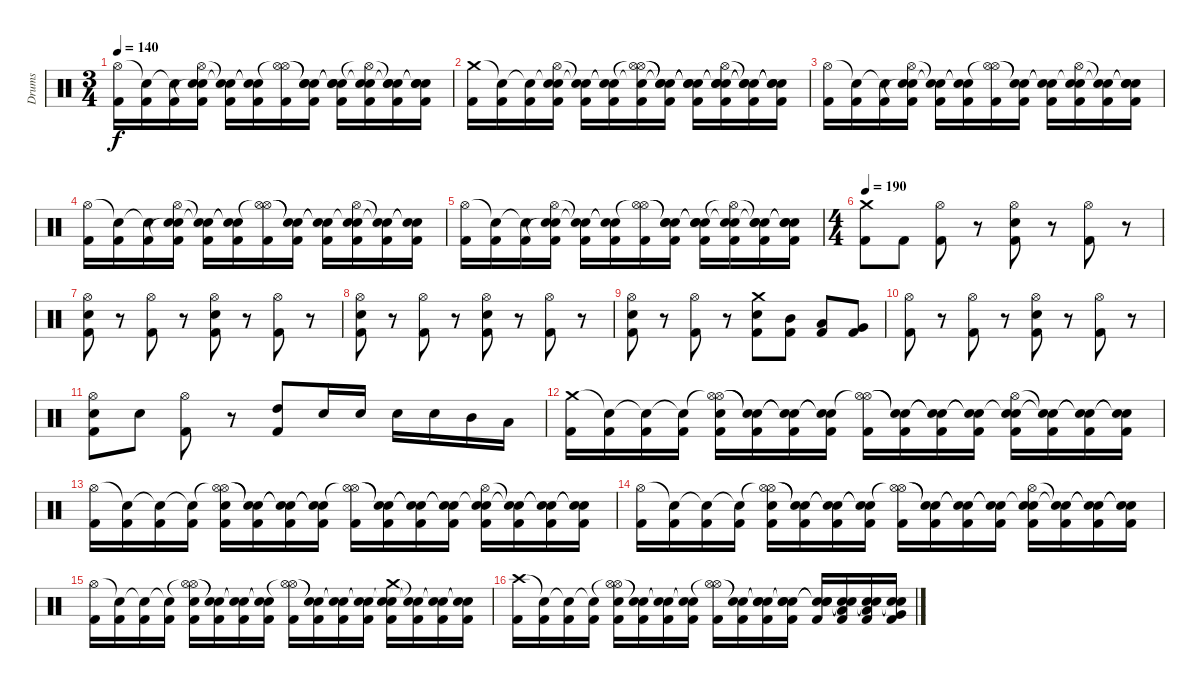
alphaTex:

\track ("Drums" "Drums") {instrument percussion}
\staff {score}
\articulation defaults
\ts (3 4)
\tempo 140
\clef neutral
\ks c
("Hi-Hat (open)" "Kick (hit) 2").16{dy f} ("Snare (hit)"{t} "Kick (hit) 2").16 ("Snare (hit)"{t} "Kick (hit) 2").16 ("Hi-Hat (open)" "Snare (hit)"{t} "Electric Snare (hit)" "Kick (hit) 2").16 ("Snare (hit)"{t} "Snare (hit)"{t} "Kick (hit) 2").16 ("Snare (hit)"{t} "Snare (hit)"{t} "Kick (hit) 2").16 ("Hi-Hat (open)"{t} "Hi-Hat (open)" "Kick (hit) 2").16 ("Snare (hit)"{t} "Snare (hit)"{t} "Electric Snare (hit)" "Kick (hit) 2").16 ("Snare (hit)"{t} "Snare (hit)"{t} "Electric Snare (hit)" "Kick (hit) 2").16 ("Hi-Hat (open)"{t} "Snare (hit)"{t} "Electric Snare (hit)" "Kick (hit) 2").16 ("Snare (hit)"{t} "Snare (hit)"{t} "Electric Snare (hit)" "Kick (hit) 2").16 ("Snare (hit)"{t} "Snare (hit)"{t} "Electric Snare (hit)" "Kick (hit) 2").16 |
("Crash medium (hit)" "Kick (hit) 2").16 ("Snare (hit)"{t} "Kick (hit) 2").16 ("Snare (hit)"{t} "Kick (hit) 2").16 ("Snare (hit)"{t} "Hi-Hat (open)" "Electric Snare (hit)" "Kick (hit) 2").16 ("Snare (hit)"{t} "Snare (hit)"{t} "Kick (hit) 2").16 ("Snare (hit)"{t} "Snare (hit)"{t} "Kick (hit) 2").16 ("Snare (hit)"{t} "Hi-Hat (open)"{t} "Hi-Hat (open)" "Kick (hit) 2").16 ("Snare (hit)"{t} "Snare (hit)"{t} "Snare (hit)"{t} "Kick (hit) 2").16 ("Snare (hit)"{t} "Snare (hit)"{t} "Snare (hit)"{t} "Kick (hit) 2").16 ("Snare (hit)"{t} "Hi-Hat (open)" "Snare (hit)"{t} "Electric Snare (hit)" "Kick (hit) 2").16 ("Snare (hit)"{t} "Snare (hit)"{t} "Snare (hit)"{t} "Kick (hit) 2").16 ("Snare (hit)"{t} "Snare (hit)"{t} "Snare (hit)"{t} "Kick (hit) 2").16 |
("Hi-Hat (open)" "Kick (hit) 2").16 ("Snare (hit)"{t} "Kick (hit) 2").16 ("Snare (hit)"{t} "Kick (hit) 2").16 ("Hi-Hat (open)" "Snare (hit)"{t} "Electric Snare (hit)" "Kick (hit) 2").16 ("Snare (hit)"{t} "Snare (hit)"{t} "Kick (hit) 2").16 ("Snare (hit)"{t} "Snare (hit)"{t} "Kick (hit) 2").16 ("Hi-Hat (open)"{t} "Hi-Hat (open)" "Kick (hit) 2").16 ("Snare (hit)"{t} "Snare (hit)"{t} "Kick (hit) 2").16 ("Snare (hit)"{t} "Snare (hit)"{t} "Kick (hit) 2").16 ("Hi-Hat (open)" "Snare (hit)"{t} "Electric Snare (hit)" "Kick (hit) 2").16 ("Snare (hit)"{t} "Snare (hit)"{t} "Kick (hit) 2").16 ("Snare (hit)"{t} "Snare (hit)"{t} "Electric Snare (hit)" "Kick (hit) 2").16 |
("Hi-Hat (open)" "Kick (hit) 2").16 ("Snare (hit)"{t} "Kick (hit) 2").16 ("Snare (hit)"{t} "Kick (hit) 2").16 ("Hi-Hat (open)" "Snare (hit)"{t} "Electric Snare (hit)" "Kick (hit) 2").16 ("Snare (hit)"{t} "Snare (hit)"{t} "Kick (hit) 2").16 ("Snare (hit)"{t} "Snare (hit)"{t} "Kick (hit) 2").16 ("Hi-Hat (open)"{t} "Hi-Hat (open)" "Kick (hit) 2").16 ("Snare (hit)"{t} "Snare (hit)"{t} "Kick (hit) 2").16 ("Snare (hit)"{t} "Snare (hit)"{t} "Kick (hit) 2").16 ("Hi-Hat (open)" "Snare (hit)"{t} "Electric Snare (hit)" "Kick (hit) 2").16 ("Snare (hit)"{t} "Snare (hit)"{t} "Kick (hit) 2").16 ("Snare (hit)"{t} "Snare (hit)"{t} "Kick (hit) 2").16 |
("Hi-Hat (open)" "Kick (hit) 2").16 ("Snare (hit)"{t} "Kick (hit) 2").16 ("Snare (hit)"{t} "Kick (hit) 2").16 ("Hi-Hat (open)" "Snare (hit)"{t} "Electric Snare (hit)" "Kick (hit) 2").16 ("Snare (hit)"{t} "Snare (hit)"{t} "Kick (hit) 2").16 ("Snare (hit)"{t} "Snare (hit)"{t} "Kick (hit) 2").16 ("Hi-Hat (open)"{t} "Hi-Hat (open)" "Kick (hit) 2").16 ("Snare (hit)"{t} "Snare (hit)"{t} "Electric Snare (hit)" "Kick (hit) 2").16 ("Snare (hit)"{t} "Snare (hit)"{t} "Electric Snare (hit)" "Kick (hit) 2").16 ("Hi-Hat (open)"{t} "Snare (hit)"{t} "Electric Snare (hit)" "Kick (hit) 2").16 ("Snare (hit)"{t} "Snare (hit)"{t} "Electric Snare (hit)" "Kick (hit) 2").16 ("Snare (hit)"{t} "Snare (hit)"{t} "Electric Snare (hit)" "Kick (hit) 2").16 |
\ts (4 4)
\tempo 190
("Crash medium (hit)" "Kick (hit) 2").8 "Kick (hit) 2".8 ("Hi-Hat (open)" "Kick (hit) 2").8 r.8 ("Hi-Hat (open)" "Electric Snare (hit)" "Kick (hit) 2").8 r.8 ("Hi-Hat (open)" "Kick (hit) 2").8 r.8 |
("Hi-Hat (open)" "Electric Snare (hit)" "Kick (hit) 2").8 r.8 ("Hi-Hat (open)" "Kick (hit) 2").8 r.8 ("Hi-Hat (open)" "Electric Snare (hit)" "Kick (hit) 2").8 r.8 ("Hi-Hat (open)" "Kick (hit) 2").8 r.8 |
("Hi-Hat (open)" "Electric Snare (hit)" "Kick (hit) 2").8 r.8 ("Hi-Hat (open)" "Kick (hit) 2").8 r.8 ("Hi-Hat (open)" "Electric Snare (hit)" "Kick (hit) 2").8 r.8 ("Hi-Hat (open)" "Kick (hit) 2").8 r.8 |
("Hi-Hat (open)" "Electric Snare (hit)" "Kick (hit) 2").8 r.8 ("Hi-Hat (open)" "Kick (hit) 2").8 r.8 ("Crash medium (hit)" "Electric Snare (hit)" "Kick (hit) 2").8 ("Mid Tom (hit)" "Kick (hit) 2").8 ("Low Tom (hit)" "Kick (hit) 2").8 ("Very Low Tom (hit)" "Kick (hit) 2").8 |
("Hi-Hat (open)" "Kick (hit) 2").8 r.8 ("Hi-Hat (open)" "Kick (hit) 2").8 r.8 ("Hi-Hat (open)" "Electric Snare (hit)" "Kick (hit) 2").8 r.8 ("Hi-Hat (open)" "Kick (hit) 2").8 r.8 |
("Hi-Hat (open)" "Electric Snare (hit)" "Kick (hit) 2").8 "Electric Snare (hit)".8 ("Hi-Hat (open)" "Kick (hit) 2").8 r.8 ("High Tom (hit)" "Kick (hit) 2").8 "Electric Snare (hit)".16 "Electric Snare (hit)".16 "Electric Snare (hit)".16 "Electric Snare (hit)".16 "Mid Tom (hit)".16 "Low Tom (hit)".16 |
("Crash medium (hit)" "Kick (hit) 2").16 ("Snare (hit)"{t} "Kick (hit) 2").16 ("Snare (hit)"{t} "Kick (hit) 2").16 ("Snare (hit)"{t} "Kick (hit) 2").16 ("Hi-Hat (open)"{t} "Hi-Hat (open)" "Electric Snare (hit)" "Kick (hit) 2").16 ("Snare (hit)"{t} "Snare (hit)"{t} "Kick (hit) 2").16 ("Snare (hit)"{t} "Snare (hit)"{t} "Kick (hit) 2").16 ("Snare (hit)"{t} "Snare (hit)"{t} "Kick (hit) 2").16 ("Hi-Hat (open)" "Hi-Hat (open)"{t} "Kick (hit) 2").16 ("Snare (hit)"{t} "Snare (hit)"{t} "Kick (hit) 2").16 ("Snare (hit)"{t} "Snare (hit)"{t} "Kick (hit) 2").16 ("Snare (hit)"{t} "Snare (hit)"{t} "Kick (hit) 2").16 ("Snare (hit)"{t} "Hi-Hat (open)" "Electric Snare (hit)" "Kick (hit) 2").16 ("Snare (hit)"{t} "Snare (hit)"{t} "Kick (hit) 2").16 ("Snare (hit)"{t} "Snare (hit)"{t} "Kick (hit) 2").16 ("Snare (hit)"{t} "Snare (hit)"{t} "Kick (hit) 2").16 |
("Hi-Hat (open)" "Kick (hit) 2").16 ("Snare (hit)"{t} "Kick (hit) 2").16 ("Snare (hit)"{t} "Kick (hit) 2").16 ("Snare (hit)"{t} "Kick (hit) 2").16 ("Hi-Hat (open)"{t} "Hi-Hat (open)" "Electric Snare (hit)" "Kick (hit) 2").16 ("Snare (hit)"{t} "Snare (hit)"{t} "Kick (hit) 2").16 ("Snare (hit)"{t} "Snare (hit)"{t} "Kick (hit) 2").16 ("Snare (hit)"{t} "Snare (hit)"{t} "Kick (hit) 2").16 ("Hi-Hat (open)" "Hi-Hat (open)"{t} "Kick (hit) 2").16 ("Snare (hit)"{t} "Snare (hit)"{t} "Kick (hit) 2").16 ("Snare (hit)"{t} "Snare (hit)"{t} "Kick (hit) 2").16 ("Snare (hit)"{t} "Snare (hit)"{t} "Kick (hit) 2").16 ("Snare (hit)"{t} "Hi-Hat (open)" "Electric Snare (hit)" "Kick (hit) 2").16 ("Snare (hit)"{t} "Snare (hit)"{t} "Kick (hit) 2").16 ("Snare (hit)"{t} "Snare (hit)"{t} "Kick (hit) 2").16 ("Snare (hit)"{t} "Snare (hit)"{t} "Kick (hit) 2").16 |
("Hi-Hat (open)" "Kick (hit) 2").16 ("Snare (hit)"{t} "Kick (hit) 2").16 ("Snare (hit)"{t} "Kick (hit) 2").16 ("Snare (hit)"{t} "Kick (hit) 2").16 ("Hi-Hat (open)"{t} "Hi-Hat (open)" "Electric Snare (hit)" "Kick (hit) 2").16 ("Snare (hit)"{t} "Snare (hit)"{t} "Kick (hit) 2").16 ("Snare (hit)"{t} "Snare (hit)"{t} "Kick (hit) 2").16 ("Snare (hit)"{t} "Snare (hit)"{t} "Kick (hit) 2").16 ("Hi-Hat (open)" "Hi-Hat (open)"{t} "Kick (hit) 2").16 ("Snare (hit)"{t} "Snare (hit)"{t} "Kick (hit) 2").16 ("Snare (hit)"{t} "Snare (hit)"{t} "Kick (hit) 2").16 ("Snare (hit)"{t} "Snare (hit)"{t} "Kick (hit) 2").16 ("Snare (hit)"{t} "Hi-Hat (open)" "Electric Snare (hit)" "Kick (hit) 2").16 ("Snare (hit)"{t} "Snare (hit)"{t} "Kick (hit) 2").16 ("Snare (hit)"{t} "Snare (hit)"{t} "Kick (hit) 2").16 ("Snare (hit)"{t} "Snare (hit)"{t} "Kick (hit) 2").16 |
("Hi-Hat (open)" "Kick (hit) 2").16 ("Snare (hit)"{t} "Kick (hit) 2").16 ("Snare (hit)"{t} "Kick (hit) 2").16 ("Snare (hit)"{t} "Kick (hit) 2").16 ("Hi-Hat (open)"{t} "Hi-Hat (open)" "Electric Snare (hit)" "Kick (hit) 2").16 ("Snare (hit)"{t} "Snare (hit)"{t} "Kick (hit) 2").16 ("Snare (hit)"{t} "Snare (hit)"{t} "Kick (hit) 2").16 ("Snare (hit)"{t} "Snare (hit)"{t} "Kick (hit) 2").16 ("Hi-Hat (open)" "Hi-Hat (open)"{t} "Kick (hit) 2").16 ("Snare (hit)"{t} "Snare (hit)"{t} "Kick (hit) 2").16 ("Snare (hit)"{t} "Snare (hit)"{t} "Kick (hit) 2").16 ("Snare (hit)"{t} "Snare (hit)"{t} "Kick (hit) 2").16 ("Crash medium (hit)" "Snare (hit)"{t} "Electric Snare (hit)" "Kick (hit) 2").16 ("Snare (hit)"{t} "Snare (hit)"{t} "Kick (hit) 2").16 ("Snare (hit)"{t} "Snare (hit)"{t} "Kick (hit) 2").16 ("Snare (hit)"{t} "Snare (hit)"{t} "Kick (hit) 2").16 |
("Crash high (hit)" "Kick (hit) 2").16 ("Snare (hit)"{t} "Kick (hit) 2").16 ("Snare (hit)"{t} "Kick (hit) 2").16 ("Snare (hit)"{t} "Kick (hit) 2").16 ("Hi-Hat (open)"{t} "Hi-Hat (open)" "Electric Snare (hit)" "Kick (hit) 2").16 ("Snare (hit)"{t} "Snare (hit)"{t} "Kick (hit) 2").16 ("Snare (hit)"{t} "Snare (hit)"{t} "Kick (hit) 2").16 ("Snare (hit)"{t} "Snare (hit)"{t} "Kick (hit) 2").16 ("Hi-Hat (open)" "Hi-Hat (open)"{t} "Kick (hit) 2").16 ("Snare (hit)"{t} "Snare (hit)"{t} "Kick (hit) 2").16 ("Snare (hit)"{t} "Snare (hit)"{t} "Electric Snare (hit)" "Kick (hit) 2").16 ("Snare (hit)"{t} "Snare (hit)"{t} "Electric Snare (hit)" "Kick (hit) 2").16 ("Snare (hit)"{t} "Snare (hit)"{t} "Electric Snare (hit)" "Kick (hit) 2").16 ("Snare (hit)"{t} "Snare (hit)"{t} "Low Tom (hit)" "Kick (hit) 2").16 ("Snare (hit)"{t} "Snare (hit)"{t} "Low Tom (hit)" "Kick (hit) 2").16 ("Snare (hit)"{t} "Snare (hit)"{t} "Very Low Tom (hit)" "Kick (hit) 2").16
